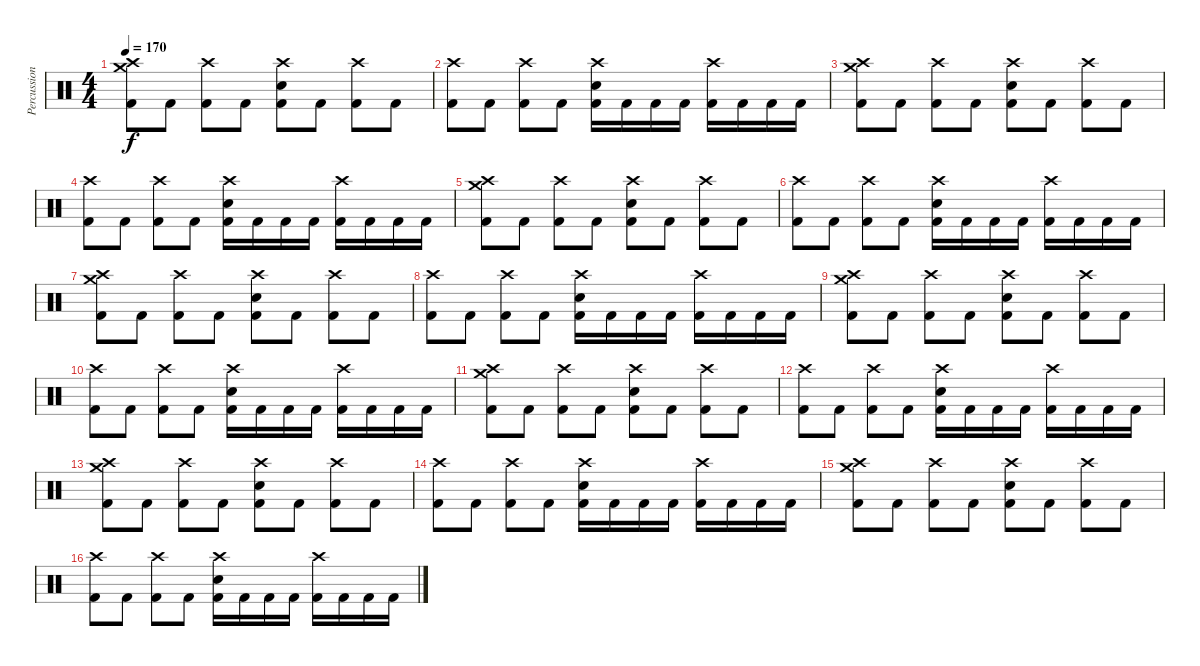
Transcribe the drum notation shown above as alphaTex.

\track ("Percussion" "Percussion") {instrument percussion}
\staff {score}
\articulation defaults
\ts (4 4)
\tempo 170
\clef neutral
\ks c
("Crash medium (hit)" "Crash high (hit)" "Kick (hit) 2").8{dy f} "Kick (hit) 2".8 ("Crash high (hit)" "Kick (hit) 2").8 "Kick (hit) 2".8 ("Snare (hit) 2" "Crash high (hit)" "Kick (hit) 2").8 "Kick (hit) 2".8 ("Crash high (hit)" "Kick (hit) 2").8 "Kick (hit) 2".8 |
("Crash high (hit)" "Kick (hit) 2").8 "Kick (hit) 2".8 ("Crash high (hit)" "Kick (hit) 2").8 "Kick (hit) 2".8 ("Snare (hit) 2" "Crash high (hit)" "Kick (hit) 2").16 "Kick (hit) 2".16 "Kick (hit) 2".16 "Kick (hit) 2".16 ("Crash high (hit)" "Kick (hit) 2").16 "Kick (hit) 2".16 "Kick (hit) 2".16 "Kick (hit) 2".16 |
("Crash medium (hit)" "Crash high (hit)" "Kick (hit) 2").8 "Kick (hit) 2".8 ("Crash high (hit)" "Kick (hit) 2").8 "Kick (hit) 2".8 ("Snare (hit) 2" "Crash high (hit)" "Kick (hit) 2").8 "Kick (hit) 2".8 ("Crash high (hit)" "Kick (hit) 2").8 "Kick (hit) 2".8 |
("Crash high (hit)" "Kick (hit) 2").8 "Kick (hit) 2".8 ("Crash high (hit)" "Kick (hit) 2").8 "Kick (hit) 2".8 ("Snare (hit) 2" "Crash high (hit)" "Kick (hit) 2").16 "Kick (hit) 2".16 "Kick (hit) 2".16 "Kick (hit) 2".16 ("Crash high (hit)" "Kick (hit) 2").16 "Kick (hit) 2".16 "Kick (hit) 2".16 "Kick (hit) 2".16 |
("Crash medium (hit)" "Crash high (hit)" "Kick (hit) 2").8 "Kick (hit) 2".8 ("Crash high (hit)" "Kick (hit) 2").8 "Kick (hit) 2".8 ("Snare (hit) 2" "Crash high (hit)" "Kick (hit) 2").8 "Kick (hit) 2".8 ("Crash high (hit)" "Kick (hit) 2").8 "Kick (hit) 2".8 |
("Crash high (hit)" "Kick (hit) 2").8 "Kick (hit) 2".8 ("Crash high (hit)" "Kick (hit) 2").8 "Kick (hit) 2".8 ("Snare (hit) 2" "Crash high (hit)" "Kick (hit) 2").16 "Kick (hit) 2".16 "Kick (hit) 2".16 "Kick (hit) 2".16 ("Crash high (hit)" "Kick (hit) 2").16 "Kick (hit) 2".16 "Kick (hit) 2".16 "Kick (hit) 2".16 |
("Crash medium (hit)" "Crash high (hit)" "Kick (hit) 2").8 "Kick (hit) 2".8 ("Crash high (hit)" "Kick (hit) 2").8 "Kick (hit) 2".8 ("Snare (hit) 2" "Crash high (hit)" "Kick (hit) 2").8 "Kick (hit) 2".8 ("Crash high (hit)" "Kick (hit) 2").8 "Kick (hit) 2".8 |
("Crash high (hit)" "Kick (hit) 2").8 "Kick (hit) 2".8 ("Crash high (hit)" "Kick (hit) 2").8 "Kick (hit) 2".8 ("Snare (hit) 2" "Crash high (hit)" "Kick (hit) 2").16 "Kick (hit) 2".16 "Kick (hit) 2".16 "Kick (hit) 2".16 ("Crash high (hit)" "Kick (hit) 2").16 "Kick (hit) 2".16 "Kick (hit) 2".16 "Kick (hit) 2".16 |
("Crash medium (hit)" "Crash high (hit)" "Kick (hit) 2").8 "Kick (hit) 2".8 ("Crash high (hit)" "Kick (hit) 2").8 "Kick (hit) 2".8 ("Snare (hit) 2" "Crash high (hit)" "Kick (hit) 2").8 "Kick (hit) 2".8 ("Crash high (hit)" "Kick (hit) 2").8 "Kick (hit) 2".8 |
("Crash high (hit)" "Kick (hit) 2").8 "Kick (hit) 2".8 ("Crash high (hit)" "Kick (hit) 2").8 "Kick (hit) 2".8 ("Snare (hit) 2" "Crash high (hit)" "Kick (hit) 2").16 "Kick (hit) 2".16 "Kick (hit) 2".16 "Kick (hit) 2".16 ("Crash high (hit)" "Kick (hit) 2").16 "Kick (hit) 2".16 "Kick (hit) 2".16 "Kick (hit) 2".16 |
("Crash medium (hit)" "Crash high (hit)" "Kick (hit) 2").8 "Kick (hit) 2".8 ("Crash high (hit)" "Kick (hit) 2").8 "Kick (hit) 2".8 ("Snare (hit) 2" "Crash high (hit)" "Kick (hit) 2").8 "Kick (hit) 2".8 ("Crash high (hit)" "Kick (hit) 2").8 "Kick (hit) 2".8 |
("Crash high (hit)" "Kick (hit) 2").8 "Kick (hit) 2".8 ("Crash high (hit)" "Kick (hit) 2").8 "Kick (hit) 2".8 ("Snare (hit) 2" "Crash high (hit)" "Kick (hit) 2").16 "Kick (hit) 2".16 "Kick (hit) 2".16 "Kick (hit) 2".16 ("Crash high (hit)" "Kick (hit) 2").16 "Kick (hit) 2".16 "Kick (hit) 2".16 "Kick (hit) 2".16 |
("Crash medium (hit)" "Crash high (hit)" "Kick (hit) 2").8 "Kick (hit) 2".8 ("Crash high (hit)" "Kick (hit) 2").8 "Kick (hit) 2".8 ("Snare (hit) 2" "Crash high (hit)" "Kick (hit) 2").8 "Kick (hit) 2".8 ("Crash high (hit)" "Kick (hit) 2").8 "Kick (hit) 2".8 |
("Crash high (hit)" "Kick (hit) 2").8 "Kick (hit) 2".8 ("Crash high (hit)" "Kick (hit) 2").8 "Kick (hit) 2".8 ("Snare (hit) 2" "Crash high (hit)" "Kick (hit) 2").16 "Kick (hit) 2".16 "Kick (hit) 2".16 "Kick (hit) 2".16 ("Crash high (hit)" "Kick (hit) 2").16 "Kick (hit) 2".16 "Kick (hit) 2".16 "Kick (hit) 2".16 |
("Crash medium (hit)" "Crash high (hit)" "Kick (hit) 2").8 "Kick (hit) 2".8 ("Crash high (hit)" "Kick (hit) 2").8 "Kick (hit) 2".8 ("Snare (hit) 2" "Crash high (hit)" "Kick (hit) 2").8 "Kick (hit) 2".8 ("Crash high (hit)" "Kick (hit) 2").8 "Kick (hit) 2".8 |
("Crash high (hit)" "Kick (hit) 2").8 "Kick (hit) 2".8 ("Crash high (hit)" "Kick (hit) 2").8 "Kick (hit) 2".8 ("Snare (hit) 2" "Crash high (hit)" "Kick (hit) 2").16 "Kick (hit) 2".16 "Kick (hit) 2".16 "Kick (hit) 2".16 ("Crash high (hit)" "Kick (hit) 2").16 "Kick (hit) 2".16 "Kick (hit) 2".16 "Kick (hit) 2".16
